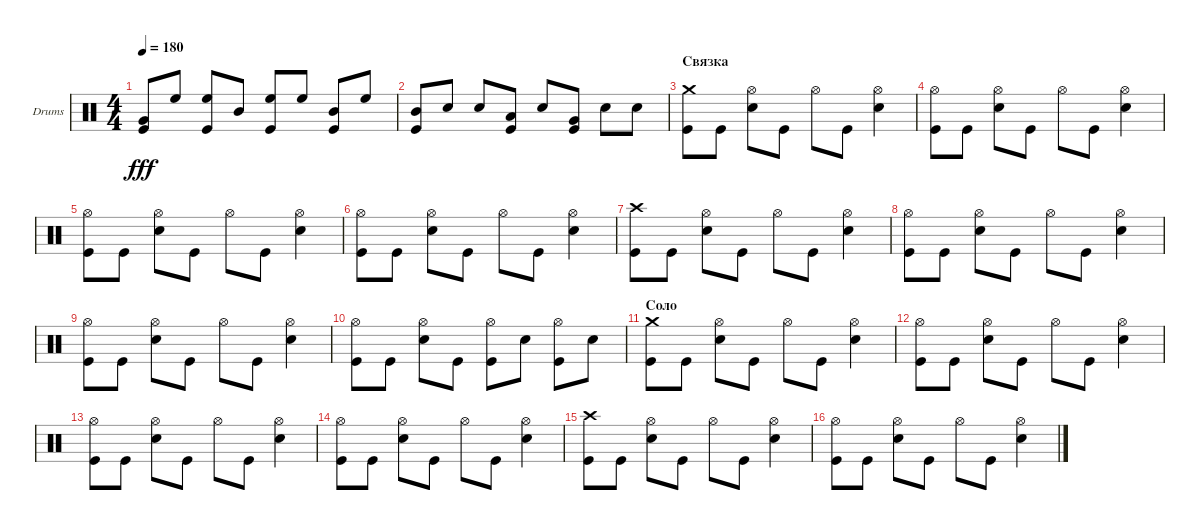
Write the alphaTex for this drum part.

\defaultSystemsLayout 4
\bracketExtendMode groupsimilarinstruments
\firstSystemTrackNameOrientation horizontal
\otherSystemsTrackNameOrientation horizontal
\track ("Барабаны" "Drums") {instrument percussion}
\staff {score}
\articulation defaults
\ts (4 4)
\tempo 180
\clef neutral
\scale
0.333333
\ks c
("Very Low Tom (hit)" "Kick (hit)").8{dy fff} "High Floor Tom (hit)".8 ("High Floor Tom (hit)" "Kick (hit)").8 "Mid Tom (hit)".8 ("High Floor Tom (hit)" "Kick (hit)").8 "High Floor Tom (hit)".8 ("Mid Tom (hit)" "Kick (hit)").8 "High Floor Tom (hit)".8 |
\scale
0.333333 ("Mid Tom (hit)" "Kick (hit)").8 "Snare (hit) 2".8 "Snare (hit) 2".8 ("Low Tom (hit)" "Kick (hit)").8 "Snare (hit) 2".8 ("Very Low Tom (hit)" "Kick (hit)").8 "Snare (hit) 2".8 "Snare (hit) 2".8 |
\section ("" "Связка")
\scale
0.333333 ("Crash medium (hit)" "Kick (hit)").8 "Kick (hit)".8 ("Hi-Hat (open)" "Snare (hit) 2").8 "Kick (hit)".8 "Hi-Hat (open)".8 "Kick (hit)".8 ("Hi-Hat (open)" "Snare (hit) 2").4 |
\scale
0.333333 ("Hi-Hat (open)" "Kick (hit)").8 "Kick (hit)".8 ("Hi-Hat (open)" "Snare (hit) 2").8 "Kick (hit)".8 "Hi-Hat (open)".8 "Kick (hit)".8 ("Hi-Hat (open)" "Snare (hit) 2").4 |
\scale
0.333333 ("Hi-Hat (open)" "Kick (hit)").8 "Kick (hit)".8 ("Hi-Hat (open)" "Snare (hit) 2").8 "Kick (hit)".8 "Hi-Hat (open)".8 "Kick (hit)".8 ("Hi-Hat (open)" "Snare (hit) 2").4 |
\scale
0.333333 ("Hi-Hat (open)" "Kick (hit)").8 "Kick (hit)".8 ("Hi-Hat (open)" "Snare (hit) 2").8 "Kick (hit)".8 "Hi-Hat (open)".8 "Kick (hit)".8 ("Hi-Hat (open)" "Snare (hit) 2").4 |
\scale
0.333333 ("Crash high (hit)" "Kick (hit)").8 "Kick (hit)".8 ("Hi-Hat (open)" "Snare (hit) 2").8 "Kick (hit)".8 "Hi-Hat (open)".8 "Kick (hit)".8 ("Hi-Hat (open)" "Snare (hit) 2").4 |
\scale
0.333333 ("Hi-Hat (open)" "Kick (hit)").8 "Kick (hit)".8 ("Hi-Hat (open)" "Snare (hit) 2").8 "Kick (hit)".8 "Hi-Hat (open)".8 "Kick (hit)".8 ("Hi-Hat (open)" "Snare (hit) 2").4 |
\scale
0.333333 ("Hi-Hat (open)" "Kick (hit)").8 "Kick (hit)".8 ("Hi-Hat (open)" "Snare (hit) 2").8 "Kick (hit)".8 "Hi-Hat (open)".8 "Kick (hit)".8 ("Hi-Hat (open)" "Snare (hit) 2").4 |
\scale
0.333333 ("Hi-Hat (open)" "Kick (hit)").8 "Kick (hit)".8 ("Hi-Hat (open)" "Snare (hit) 2").8 "Kick (hit)".8 ("Hi-Hat (open)" "Kick (hit)").8 "Snare (hit) 2".8 ("Hi-Hat (open)" "Kick (hit)").8 "Snare (hit) 2".8 |
\section ("" "Соло")
\scale
0.333333 ("Crash medium (hit)" "Kick (hit)").8 "Kick (hit)".8 ("Hi-Hat (open)" "Snare (hit) 2").8 "Kick (hit)".8 "Hi-Hat (open)".8 "Kick (hit)".8 ("Hi-Hat (open)" "Snare (hit) 2").4 |
\scale
0.333333 ("Hi-Hat (open)" "Kick (hit)").8 "Kick (hit)".8 ("Hi-Hat (open)" "Snare (hit) 2").8 "Kick (hit)".8 "Hi-Hat (open)".8 "Kick (hit)".8 ("Hi-Hat (open)" "Snare (hit) 2").4 |
\scale
0.333333 ("Hi-Hat (open)" "Kick (hit)").8 "Kick (hit)".8 ("Hi-Hat (open)" "Snare (hit) 2").8 "Kick (hit)".8 "Hi-Hat (open)".8 "Kick (hit)".8 ("Hi-Hat (open)" "Snare (hit) 2").4 |
\scale
0.333333 ("Hi-Hat (open)" "Kick (hit)").8 "Kick (hit)".8 ("Hi-Hat (open)" "Snare (hit) 2").8 "Kick (hit)".8 "Hi-Hat (open)".8 "Kick (hit)".8 ("Hi-Hat (open)" "Snare (hit) 2").4 |
\scale
0.333333 ("Crash high (hit)" "Kick (hit)").8 "Kick (hit)".8 ("Hi-Hat (open)" "Snare (hit) 2").8 "Kick (hit)".8 "Hi-Hat (open)".8 "Kick (hit)".8 ("Hi-Hat (open)" "Snare (hit) 2").4 |
("Hi-Hat (open)" "Kick (hit)").8 "Kick (hit)".8 ("Hi-Hat (open)" "Snare (hit) 2").8 "Kick (hit)".8 "Hi-Hat (open)".8 "Kick (hit)".8 ("Hi-Hat (open)" "Snare (hit) 2").4
